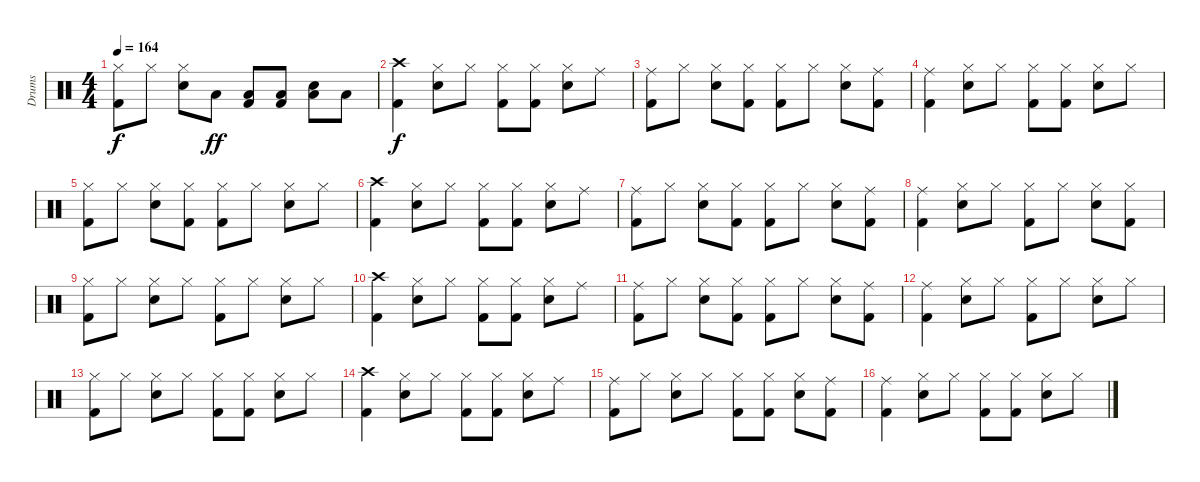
\track ("Drums" "Drums") {instrument percussion}
\staff {score}
\articulation defaults
\ts (4 4)
\tempo 164
\clef neutral
\ks c
("Hi-Hat (closed)" "Kick (hit) 2").8{dy f} "Hi-Hat (closed)".8 ("Hi-Hat (closed)" "Snare (hit) 2").8 "Low Floor Tom (hit)".8{dy ff} ("Low Floor Tom (hit)" "Kick (hit) 2").8 ("Low Floor Tom (hit)" "Kick (hit) 2").8 ("Low Floor Tom (hit)" "Snare (hit) 2").8 "Low Floor Tom (hit)".8 |
("Crash high (hit)" "Kick (hit) 2").4{dy f} ("Hi-Hat (closed)" "Snare (hit) 2").8 "Hi-Hat (closed)".8 ("Hi-Hat (closed)" "Kick (hit) 2").8 ("Hi-Hat (closed)" "Kick (hit) 2").8 ("Hi-Hat (closed)" "Snare (hit) 2").8 "Ride (middle)".8 |
("Ride (middle)" "Kick (hit) 2").8 "Hi-Hat (closed)".8 ("Hi-Hat (closed)" "Snare (hit) 2").8 ("Hi-Hat (closed)" "Kick (hit) 2").8 ("Hi-Hat (closed)" "Kick (hit) 2").8 "Hi-Hat (closed)".8 ("Hi-Hat (closed)" "Snare (hit) 2").8 ("Ride (middle)" "Kick (hit) 2").8 |
("Ride (middle)" "Kick (hit) 2").4 ("Hi-Hat (closed)" "Snare (hit) 2").8 "Hi-Hat (closed)".8 ("Hi-Hat (closed)" "Kick (hit) 2").8 ("Hi-Hat (closed)" "Kick (hit) 2").8 ("Hi-Hat (closed)" "Snare (hit) 2").8 "Hi-Hat (closed)".8 |
("Hi-Hat (closed)" "Kick (hit) 2").8 "Hi-Hat (closed)".8 ("Hi-Hat (closed)" "Snare (hit) 2").8 ("Hi-Hat (closed)" "Kick (hit) 2").8 ("Hi-Hat (closed)" "Kick (hit) 2").8 "Hi-Hat (closed)".8 ("Hi-Hat (closed)" "Snare (hit) 2").8 "Hi-Hat (closed)".8 |
("Crash high (hit)" "Kick (hit) 2").4 ("Hi-Hat (closed)" "Snare (hit) 2").8 "Hi-Hat (closed)".8 ("Hi-Hat (closed)" "Kick (hit) 2").8 ("Hi-Hat (closed)" "Kick (hit) 2").8 ("Hi-Hat (closed)" "Snare (hit) 2").8 "Ride (middle)".8 |
("Ride (middle)" "Kick (hit) 2").8 "Hi-Hat (closed)".8 ("Hi-Hat (closed)" "Snare (hit) 2").8 ("Hi-Hat (closed)" "Kick (hit) 2").8 ("Hi-Hat (closed)" "Kick (hit) 2").8 "Hi-Hat (closed)".8 ("Hi-Hat (closed)" "Snare (hit) 2").8 ("Ride (middle)" "Kick (hit) 2").8 |
("Ride (middle)" "Kick (hit) 2").4 ("Hi-Hat (closed)" "Snare (hit) 2").8 "Hi-Hat (closed)".8 ("Hi-Hat (closed)" "Kick (hit) 2").8 "Hi-Hat (closed)".8 ("Hi-Hat (closed)" "Snare (hit) 2").8 ("Hi-Hat (closed)" "Kick (hit) 2").8 |
("Hi-Hat (closed)" "Kick (hit) 2").8 "Hi-Hat (closed)".8 ("Hi-Hat (closed)" "Snare (hit) 2").8 "Hi-Hat (closed)".8 ("Hi-Hat (closed)" "Kick (hit) 2").8 "Hi-Hat (closed)".8 ("Hi-Hat (closed)" "Snare (hit) 2").8 "Hi-Hat (closed)".8 |
("Crash high (hit)" "Kick (hit) 2").4 ("Hi-Hat (closed)" "Snare (hit) 2").8 "Hi-Hat (closed)".8 ("Hi-Hat (closed)" "Kick (hit) 2").8 ("Hi-Hat (closed)" "Kick (hit) 2").8 ("Hi-Hat (closed)" "Snare (hit) 2").8 "Ride (middle)".8 |
("Ride (middle)" "Kick (hit) 2").8 "Hi-Hat (closed)".8 ("Hi-Hat (closed)" "Snare (hit) 2").8 ("Hi-Hat (closed)" "Kick (hit) 2").8 ("Hi-Hat (closed)" "Kick (hit) 2").8 "Hi-Hat (closed)".8 ("Hi-Hat (closed)" "Snare (hit) 2").8 ("Ride (middle)" "Kick (hit) 2").8 |
("Ride (middle)" "Kick (hit) 2").4 ("Hi-Hat (closed)" "Snare (hit) 2").8 "Hi-Hat (closed)".8 ("Hi-Hat (closed)" "Kick (hit) 2").8 "Hi-Hat (closed)".8 ("Hi-Hat (closed)" "Snare (hit) 2").8 "Hi-Hat (closed)".8 |
("Hi-Hat (closed)" "Kick (hit) 2").8 "Hi-Hat (closed)".8 ("Hi-Hat (closed)" "Snare (hit) 2").8 "Hi-Hat (closed)".8 ("Hi-Hat (closed)" "Kick (hit) 2").8 ("Hi-Hat (closed)" "Kick (hit) 2").8 ("Hi-Hat (closed)" "Snare (hit) 2").8 "Hi-Hat (closed)".8 |
("Crash high (hit)" "Kick (hit) 2").4 ("Hi-Hat (closed)" "Snare (hit) 2").8 "Hi-Hat (closed)".8 ("Hi-Hat (closed)" "Kick (hit) 2").8 ("Hi-Hat (closed)" "Kick (hit) 2").8 ("Hi-Hat (closed)" "Snare (hit) 2").8 "Ride (middle)".8 |
("Ride (middle)" "Kick (hit) 2").8 "Hi-Hat (closed)".8 ("Hi-Hat (closed)" "Snare (hit) 2").8 "Hi-Hat (closed)".8 ("Hi-Hat (closed)" "Kick (hit) 2").8 ("Hi-Hat (closed)" "Kick (hit) 2").8 ("Hi-Hat (closed)" "Snare (hit) 2").8 ("Ride (middle)" "Kick (hit) 2").8 |
("Ride (middle)" "Kick (hit) 2").4 ("Hi-Hat (closed)" "Snare (hit) 2").8 "Hi-Hat (closed)".8 ("Hi-Hat (closed)" "Kick (hit) 2").8 ("Hi-Hat (closed)" "Kick (hit) 2").8 ("Hi-Hat (closed)" "Snare (hit) 2").8 "Hi-Hat (closed)".8
